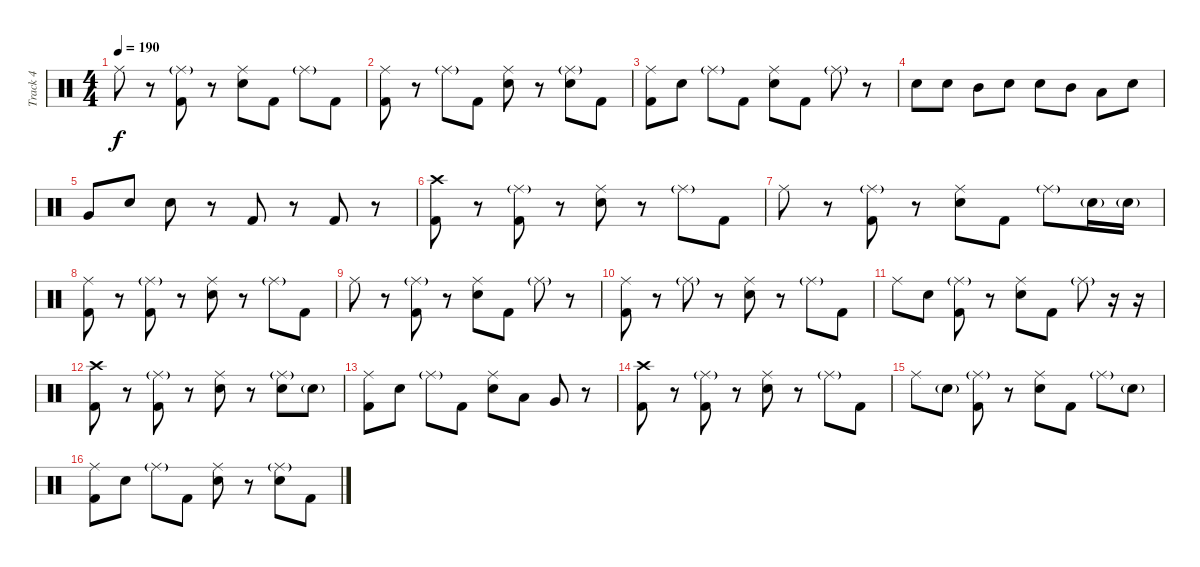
\track ("Track 4" "Track 4") {instrument percussion}
\staff {score}
\articulation defaults
\ts (4 4)
\tempo 190
\clef neutral
\ks c "Ride (middle)".8{dy f}
r.8 ("Ride (middle)"{g} "Kick (hit) 2").8 r.8 ("Ride (middle)" "Electric Snare (hit)").8 "Kick (hit) 2".8 "Ride (middle)"{g}.8 "Kick (hit) 2".8 |
("Ride (middle)" "Kick (hit) 2").8 r.8 "Ride (middle)"{g}.8 "Kick (hit) 2".8 ("Ride (middle)" "Electric Snare (hit)").8 r.8 ("Ride (middle)"{g} "Electric Snare (hit)").8 "Kick (hit) 2".8 |
("Ride (middle)" "Kick (hit) 2").8 "Electric Snare (hit)".8 "Ride (middle)"{g}.8 "Kick (hit) 2".8 ("Ride (middle)" "Electric Snare (hit)").8 "Kick (hit) 2".8 "Ride (middle)"{g}.8 r.8 |
"Electric Snare (hit)".8 "Electric Snare (hit)".8 "Mid Tom (hit)".8 "Electric Snare (hit)".8 "Electric Snare (hit)".8 "Mid Tom (hit)".8 "Low Tom (hit)".8 "Electric Snare (hit)".8 |
"Very Low Tom (hit)".8 "Electric Snare (hit)".8 "Electric Snare (hit)".8 r.8 "Kick (hit) 2".8 r.8 "Kick (hit) 2".8 r.8 |
("Crash high (hit)" "Kick (hit) 2").8 r.8 ("Ride (middle)"{g} "Kick (hit) 2").8 r.8 ("Ride (middle)" "Electric Snare (hit)").8 r.8 "Ride (middle)"{g}.8 "Kick (hit) 2".8 |
"Ride (middle)".8 r.8 ("Ride (middle)"{g} "Kick (hit) 2").8 r.8 ("Ride (middle)" "Electric Snare (hit)").8 "Kick (hit) 2".8 "Ride (middle)"{g}.8 "Electric Snare (hit)"{g}.16 "Electric Snare (hit)"{g}.16 |
("Ride (middle)" "Kick (hit) 2").8 r.8 ("Ride (middle)"{g} "Kick (hit) 2").8 r.8 ("Ride (middle)" "Electric Snare (hit)").8 r.8 "Ride (middle)"{g}.8 "Kick (hit) 2".8 |
"Ride (middle)".8 r.8 ("Ride (middle)"{g} "Kick (hit) 2").8 r.8 ("Ride (middle)" "Electric Snare (hit)").8 "Kick (hit) 2".8 "Ride (middle)"{g}.8 r.8 |
("Ride (middle)" "Kick (hit) 2").8 r.8 "Ride (middle)"{g}.8 r.8 ("Ride (middle)" "Electric Snare (hit)").8 r.8 "Ride (middle)"{g}.8 "Kick (hit) 2".8 |
"Ride (middle)".8 "Electric Snare (hit)".8 ("Ride (middle)"{g} "Kick (hit) 2").8 r.8 ("Ride (middle)" "Electric Snare (hit)").8 "Kick (hit) 2".8 "Ride (middle)"{g}.8 r.16 r.16 |
("Crash high (hit)" "Kick (hit) 2").8 r.8 ("Ride (middle)"{g} "Kick (hit) 2").8 r.8 ("Ride (middle)" "Electric Snare (hit)").8 r.8 ("Ride (middle)"{g} "Electric Snare (hit)").8 "Electric Snare (hit)"{g}.8 |
("Ride (middle)" "Kick (hit) 2").8 "Electric Snare (hit)".8 "Ride (middle)"{g}.8 "Kick (hit) 2".8 ("Ride (middle)" "Electric Snare (hit)").8 "Low Tom (hit)".8 "Very Low Tom (hit)".8 r.8 |
("Crash high (hit)" "Kick (hit) 2").8 r.8 ("Ride (middle)"{g} "Kick (hit) 2").8 r.8 ("Ride (middle)" "Electric Snare (hit)").8 r.8 "Ride (middle)"{g}.8 "Kick (hit) 2".8 |
"Ride (middle)".8 "Electric Snare (hit)"{g}.8 ("Ride (middle)"{g} "Kick (hit) 2").8 r.8 ("Ride (middle)" "Electric Snare (hit)").8 "Kick (hit) 2".8 "Ride (middle)"{g}.8 "Electric Snare (hit)"{g}.8 |
("Ride (middle)" "Kick (hit) 2").8 "Electric Snare (hit)".8 "Ride (middle)"{g}.8 "Kick (hit) 2".8 ("Ride (middle)" "Electric Snare (hit)").8 r.8 ("Ride (middle)"{g} "Electric Snare (hit)").8 "Kick (hit) 2".8
